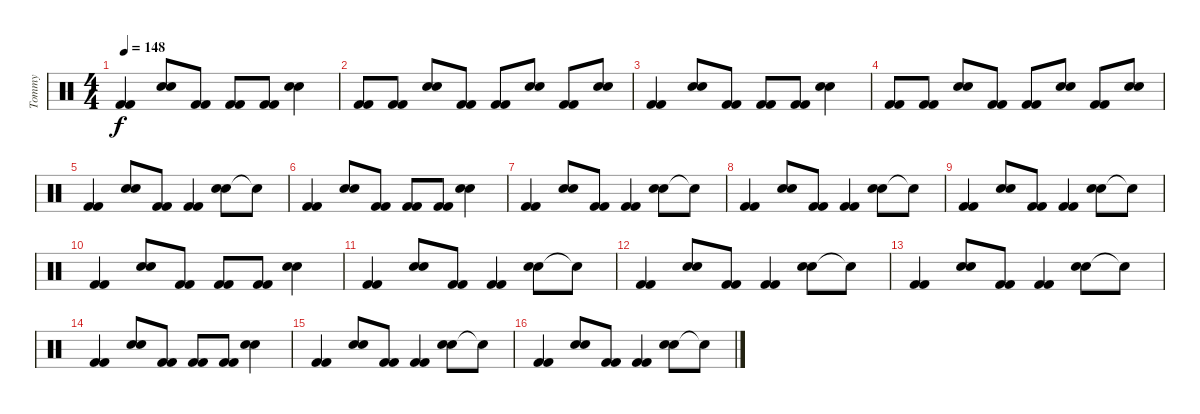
\track ("Tommy" "Tommy") {instrument percussion}
\staff {score}
\articulation defaults
\ts (4 4)
\tempo 148
\clef neutral
\ks c
("Kick (hit) 2" "Kick (hit) 2").4{dy f} ("Snare (hit) 2" "Snare (hit) 2").8 ("Kick (hit) 2" "Kick (hit) 2").8 ("Kick (hit) 2" "Kick (hit) 2").8 ("Kick (hit) 2" "Kick (hit) 2").8 ("Snare (hit) 2" "Snare (hit) 2").4 |
("Kick (hit) 2" "Kick (hit) 2").8 ("Kick (hit) 2" "Kick (hit) 2").8 ("Snare (hit) 2" "Snare (hit) 2").8 ("Kick (hit) 2" "Kick (hit) 2").8 ("Kick (hit) 2" "Kick (hit) 2").8 ("Snare (hit) 2" "Snare (hit) 2").8 ("Kick (hit) 2" "Kick (hit) 2").8 ("Snare (hit) 2" "Snare (hit) 2").8 |
("Kick (hit) 2" "Kick (hit) 2").4 ("Snare (hit) 2" "Snare (hit) 2").8 ("Kick (hit) 2" "Kick (hit) 2").8 ("Kick (hit) 2" "Kick (hit) 2").8 ("Kick (hit) 2" "Kick (hit) 2").8 ("Snare (hit) 2" "Snare (hit) 2").4 |
("Kick (hit) 2" "Kick (hit) 2").8 ("Kick (hit) 2" "Kick (hit) 2").8 ("Snare (hit) 2" "Snare (hit) 2").8 ("Kick (hit) 2" "Kick (hit) 2").8 ("Kick (hit) 2" "Kick (hit) 2").8 ("Snare (hit) 2" "Snare (hit) 2").8 ("Kick (hit) 2" "Kick (hit) 2").8 ("Snare (hit) 2" "Snare (hit) 2").8 |
("Kick (hit) 2" "Kick (hit) 2").4 ("Snare (hit) 2" "Snare (hit) 2").8 ("Kick (hit) 2" "Kick (hit) 2").8 ("Kick (hit) 2" "Kick (hit) 2").4 ("Snare (hit) 2" "Snare (hit) 2").8 "Snare (hit)"{t}.8 |
("Kick (hit) 2" "Kick (hit) 2").4 ("Snare (hit) 2" "Snare (hit) 2").8 ("Kick (hit) 2" "Kick (hit) 2").8 ("Kick (hit) 2" "Kick (hit) 2").8 ("Kick (hit) 2" "Kick (hit) 2").8 ("Snare (hit) 2" "Snare (hit) 2").4 |
("Kick (hit) 2" "Kick (hit) 2").4 ("Snare (hit) 2" "Snare (hit) 2").8 ("Kick (hit) 2" "Kick (hit) 2").8 ("Kick (hit) 2" "Kick (hit) 2").4 ("Snare (hit) 2" "Snare (hit) 2").8 "Snare (hit)"{t}.8 |
("Kick (hit) 2" "Kick (hit) 2").4 ("Snare (hit) 2" "Snare (hit) 2").8 ("Kick (hit) 2" "Kick (hit) 2").8 ("Kick (hit) 2" "Kick (hit) 2").4 ("Snare (hit) 2" "Snare (hit) 2").8 "Snare (hit)"{t}.8 |
("Kick (hit) 2" "Kick (hit) 2").4 ("Snare (hit) 2" "Snare (hit) 2").8 ("Kick (hit) 2" "Kick (hit) 2").8 ("Kick (hit) 2" "Kick (hit) 2").4 ("Snare (hit) 2" "Snare (hit) 2").8 "Snare (hit)"{t}.8 |
("Kick (hit) 2" "Kick (hit) 2").4 ("Snare (hit) 2" "Snare (hit) 2").8 ("Kick (hit) 2" "Kick (hit) 2").8 ("Kick (hit) 2" "Kick (hit) 2").8 ("Kick (hit) 2" "Kick (hit) 2").8 ("Snare (hit) 2" "Snare (hit) 2").4 |
("Kick (hit) 2" "Kick (hit) 2").4 ("Snare (hit) 2" "Snare (hit) 2").8 ("Kick (hit) 2" "Kick (hit) 2").8 ("Kick (hit) 2" "Kick (hit) 2").4 ("Snare (hit) 2" "Snare (hit) 2").8 "Snare (hit)"{t}.8 |
("Kick (hit) 2" "Kick (hit) 2").4 ("Snare (hit) 2" "Snare (hit) 2").8 ("Kick (hit) 2" "Kick (hit) 2").8 ("Kick (hit) 2" "Kick (hit) 2").4 ("Snare (hit) 2" "Snare (hit) 2").8 "Snare (hit)"{t}.8 |
("Kick (hit) 2" "Kick (hit) 2").4 ("Snare (hit) 2" "Snare (hit) 2").8 ("Kick (hit) 2" "Kick (hit) 2").8 ("Kick (hit) 2" "Kick (hit) 2").4 ("Snare (hit) 2" "Snare (hit) 2").8 "Snare (hit)"{t}.8 |
("Kick (hit) 2" "Kick (hit) 2").4 ("Snare (hit) 2" "Snare (hit) 2").8 ("Kick (hit) 2" "Kick (hit) 2").8 ("Kick (hit) 2" "Kick (hit) 2").8 ("Kick (hit) 2" "Kick (hit) 2").8 ("Snare (hit) 2" "Snare (hit) 2").4 |
("Kick (hit) 2" "Kick (hit) 2").4 ("Snare (hit) 2" "Snare (hit) 2").8 ("Kick (hit) 2" "Kick (hit) 2").8 ("Kick (hit) 2" "Kick (hit) 2").4 ("Snare (hit) 2" "Snare (hit) 2").8 "Snare (hit)"{t}.8 |
("Kick (hit) 2" "Kick (hit) 2").4 ("Snare (hit) 2" "Snare (hit) 2").8 ("Kick (hit) 2" "Kick (hit) 2").8 ("Kick (hit) 2" "Kick (hit) 2").4 ("Snare (hit) 2" "Snare (hit) 2").8 "Snare (hit)"{t}.8
